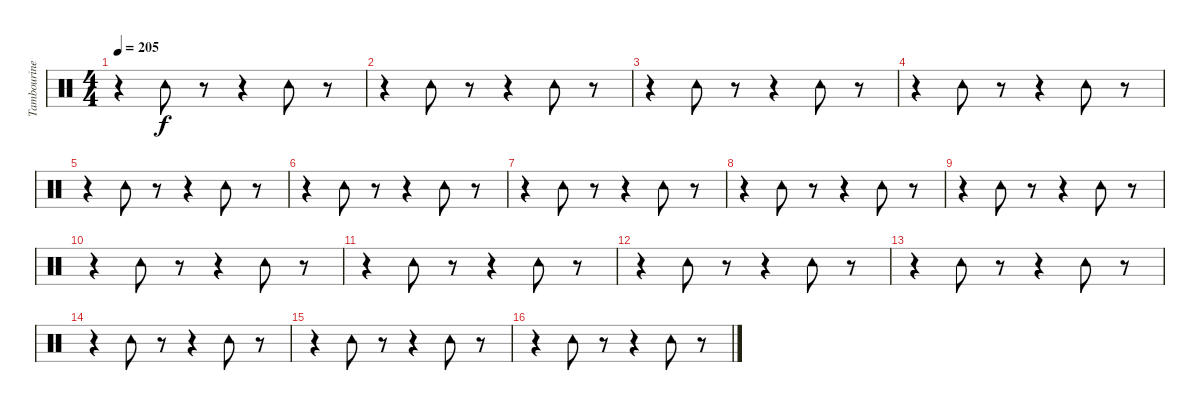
\track ("Tambourine" "Tambourine") {instrument percussion}
\staff {score}
\articulation defaults
\ts (4 4)
\tempo 205
\clef neutral
\ks c
r.4{dy f} "Tambourine (hit)".8 r.8 r.4 "Tambourine (hit)".8 r.8 |
r.4 "Tambourine (hit)".8 r.8 r.4 "Tambourine (hit)".8 r.8 |
r.4 "Tambourine (hit)".8 r.8 r.4 "Tambourine (hit)".8 r.8 |
r.4 "Tambourine (hit)".8 r.8 r.4 "Tambourine (hit)".8 r.8 |
r.4 "Tambourine (hit)".8 r.8 r.4 "Tambourine (hit)".8 r.8 |
r.4 "Tambourine (hit)".8 r.8 r.4 "Tambourine (hit)".8 r.8 |
r.4 "Tambourine (hit)".8 r.8 r.4 "Tambourine (hit)".8 r.8 |
r.4 "Tambourine (hit)".8 r.8 r.4 "Tambourine (hit)".8 r.8 |
r.4 "Tambourine (hit)".8 r.8 r.4 "Tambourine (hit)".8 r.8 |
r.4 "Tambourine (hit)".8 r.8 r.4 "Tambourine (hit)".8 r.8 |
r.4 "Tambourine (hit)".8 r.8 r.4 "Tambourine (hit)".8 r.8 |
r.4 "Tambourine (hit)".8 r.8 r.4 "Tambourine (hit)".8 r.8 |
r.4 "Tambourine (hit)".8 r.8 r.4 "Tambourine (hit)".8 r.8 |
r.4 "Tambourine (hit)".8 r.8 r.4 "Tambourine (hit)".8 r.8 |
r.4 "Tambourine (hit)".8 r.8 r.4 "Tambourine (hit)".8 r.8 |
r.4 "Tambourine (hit)".8 r.8 r.4 "Tambourine (hit)".8 r.8
